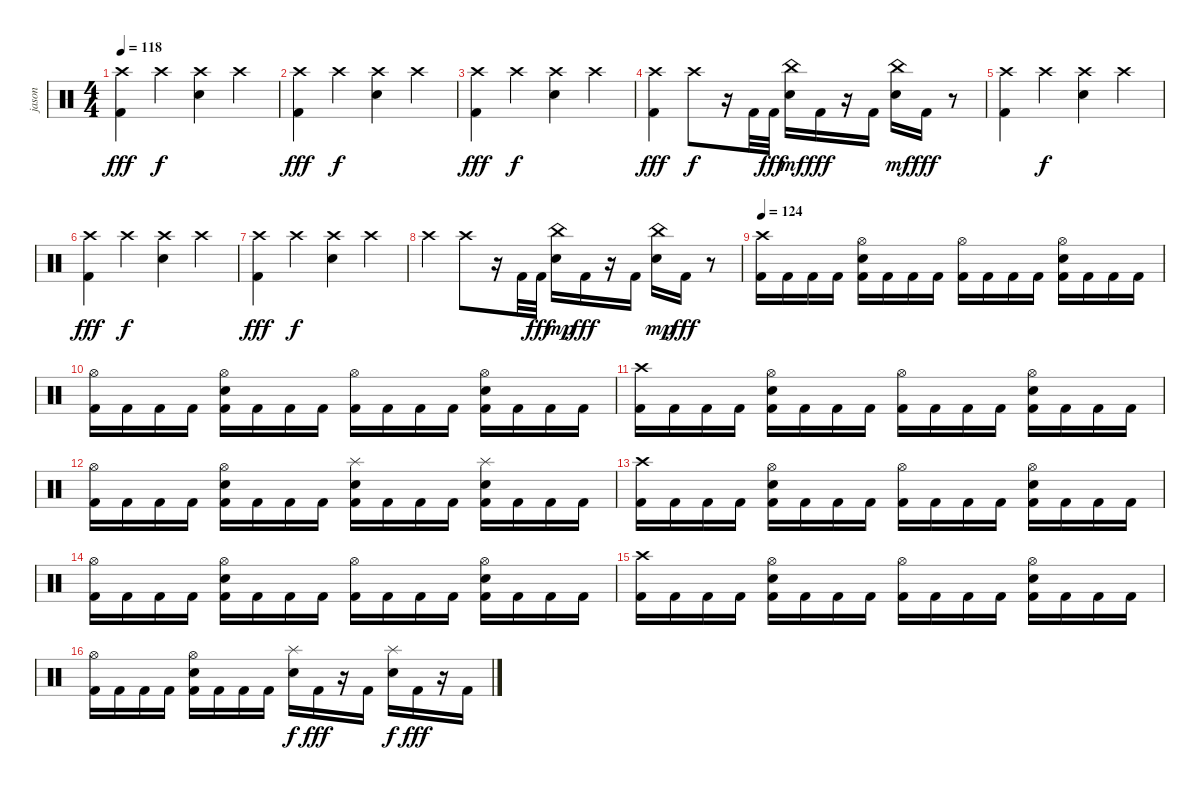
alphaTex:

\track ("jason" "jason") {solo instrument percussion}
\staff {score}
\articulation defaults
\ts (4 4)
\tempo 118
\clef neutral
\ks c
("Crash high (hit)" "Kick (hit) 2").4{dy fff} "Crash high (hit)".4{dy f} ("Crash high (hit)" "Snare (hit) 2").4 "Crash high (hit)".4 |
("Crash high (hit)" "Kick (hit) 2").4{dy fff} "Crash high (hit)".4{dy f} ("Crash high (hit)" "Snare (hit) 2").4 "Crash high (hit)".4 |
("Crash high (hit)" "Kick (hit) 2").4{dy fff} "Crash high (hit)".4{dy f} ("Crash high (hit)" "Snare (hit) 2").4 "Crash high (hit)".4 |
("Crash high (hit)" "Kick (hit) 2").4{dy fff} "Crash high (hit)".8{dy f} r.16 "Kick (hit) 2".32 "Kick (hit) 2".32{dy fff} ("China (hit)" "Snare (hit) 2").16{dy mf} "Kick (hit) 2".16{dy fff} r.16 "Kick (hit) 2".16 ("China (hit)" "Snare (hit) 2").16{dy mf} "Kick (hit) 2".16{dy fff} r.8 |
("Crash high (hit)" "Kick (hit) 2").4 "Crash high (hit)".4{dy f} ("Crash high (hit)" "Snare (hit) 2").4 "Crash high (hit)".4 |
("Crash high (hit)" "Kick (hit) 2").4{dy fff} "Crash high (hit)".4{dy f} ("Crash high (hit)" "Snare (hit) 2").4 "Crash high (hit)".4 |
("Crash high (hit)" "Kick (hit) 2").4{dy fff} "Crash high (hit)".4{dy f} ("Crash high (hit)" "Snare (hit) 2").4 "Crash high (hit)".4 |
"Crash high (hit)".4 "Crash high (hit)".8 r.16 "Kick (hit) 2".32 "Kick (hit) 2".32{dy fff} ("China (hit)" "Snare (hit) 2").16{dy mp} "Kick (hit) 2".16{dy fff} r.16 "Kick (hit) 2".16 ("China (hit)" "Snare (hit) 2").16{dy mp} "Kick (hit) 2".16{dy fff} r.8 |
\tempo 124
("Crash high (hit)" "Kick (hit) 2").16 "Kick (hit) 2".16 "Kick (hit) 2".16 "Kick (hit) 2".16 ("Hi-Hat (open)" "Snare (hit) 2" "Kick (hit) 2").16 "Kick (hit) 2".16 "Kick (hit) 2".16 "Kick (hit) 2".16 ("Hi-Hat (open)" "Kick (hit) 2").16 "Kick (hit) 2".16 "Kick (hit) 2".16 "Kick (hit) 2".16 ("Hi-Hat (open)" "Snare (hit) 2" "Kick (hit) 2").16 "Kick (hit) 2".16 "Kick (hit) 2".16 "Kick (hit) 2".16 |
("Hi-Hat (open)" "Kick (hit) 2").16 "Kick (hit) 2".16 "Kick (hit) 2".16 "Kick (hit) 2".16 ("Hi-Hat (open)" "Snare (hit) 2" "Kick (hit) 2").16 "Kick (hit) 2".16 "Kick (hit) 2".16 "Kick (hit) 2".16 ("Hi-Hat (open)" "Kick (hit) 2").16 "Kick (hit) 2".16 "Kick (hit) 2".16 "Kick (hit) 2".16 ("Hi-Hat (open)" "Snare (hit) 2" "Kick (hit) 2").16 "Kick (hit) 2".16 "Kick (hit) 2".16 "Kick (hit) 2".16 |
("Crash high (hit)" "Kick (hit) 2").16 "Kick (hit) 2".16 "Kick (hit) 2".16 "Kick (hit) 2".16 ("Hi-Hat (open)" "Snare (hit) 2" "Kick (hit) 2").16 "Kick (hit) 2".16 "Kick (hit) 2".16 "Kick (hit) 2".16 ("Hi-Hat (open)" "Kick (hit) 2").16 "Kick (hit) 2".16 "Kick (hit) 2".16 "Kick (hit) 2".16 ("Hi-Hat (open)" "Snare (hit) 2" "Kick (hit) 2").16 "Kick (hit) 2".16 "Kick (hit) 2".16 "Kick (hit) 2".16 |
("Hi-Hat (open)" "Kick (hit) 2").16 "Kick (hit) 2".16 "Kick (hit) 2".16 "Kick (hit) 2".16 ("Hi-Hat (open)" "Snare (hit) 2" "Kick (hit) 2").16 "Kick (hit) 2".16 "Kick (hit) 2".16 "Kick (hit) 2".16 ("Splash (hit)" "Snare (hit) 2" "Kick (hit) 2").16 "Kick (hit) 2".16 "Kick (hit) 2".16 "Kick (hit) 2".16 ("Splash (hit)" "Snare (hit) 2" "Kick (hit) 2").16 "Kick (hit) 2".16 "Kick (hit) 2".16 "Kick (hit) 2".16 |
("Crash high (hit)" "Kick (hit) 2").16 "Kick (hit) 2".16 "Kick (hit) 2".16 "Kick (hit) 2".16 ("Hi-Hat (open)" "Snare (hit) 2" "Kick (hit) 2").16 "Kick (hit) 2".16 "Kick (hit) 2".16 "Kick (hit) 2".16 ("Hi-Hat (open)" "Kick (hit) 2").16 "Kick (hit) 2".16 "Kick (hit) 2".16 "Kick (hit) 2".16 ("Hi-Hat (open)" "Snare (hit) 2" "Kick (hit) 2").16 "Kick (hit) 2".16 "Kick (hit) 2".16 "Kick (hit) 2".16 |
("Hi-Hat (open)" "Kick (hit) 2").16 "Kick (hit) 2".16 "Kick (hit) 2".16 "Kick (hit) 2".16 ("Hi-Hat (open)" "Snare (hit) 2" "Kick (hit) 2").16 "Kick (hit) 2".16 "Kick (hit) 2".16 "Kick (hit) 2".16 ("Hi-Hat (open)" "Kick (hit) 2").16 "Kick (hit) 2".16 "Kick (hit) 2".16 "Kick (hit) 2".16 ("Hi-Hat (open)" "Snare (hit) 2" "Kick (hit) 2").16 "Kick (hit) 2".16 "Kick (hit) 2".16 "Kick (hit) 2".16 |
("Crash high (hit)" "Kick (hit) 2").16 "Kick (hit) 2".16 "Kick (hit) 2".16 "Kick (hit) 2".16 ("Hi-Hat (open)" "Snare (hit) 2" "Kick (hit) 2").16 "Kick (hit) 2".16 "Kick (hit) 2".16 "Kick (hit) 2".16 ("Hi-Hat (open)" "Kick (hit) 2").16 "Kick (hit) 2".16 "Kick (hit) 2".16 "Kick (hit) 2".16 ("Hi-Hat (open)" "Snare (hit) 2" "Kick (hit) 2").16 "Kick (hit) 2".16 "Kick (hit) 2".16 "Kick (hit) 2".16 |
("Hi-Hat (open)" "Kick (hit) 2").16 "Kick (hit) 2".16 "Kick (hit) 2".16 "Kick (hit) 2".16 ("Hi-Hat (open)" "Snare (hit) 2" "Kick (hit) 2").16 "Kick (hit) 2".16 "Kick (hit) 2".16 "Kick (hit) 2".16 ("Splash (hit)" "Snare (hit) 2").16{dy f} "Kick (hit) 2".16{dy fff} r.16 "Kick (hit) 2".16 ("Splash (hit)" "Snare (hit) 2").16{dy f} "Kick (hit) 2".16{dy fff} r.16 "Kick (hit) 2".16
